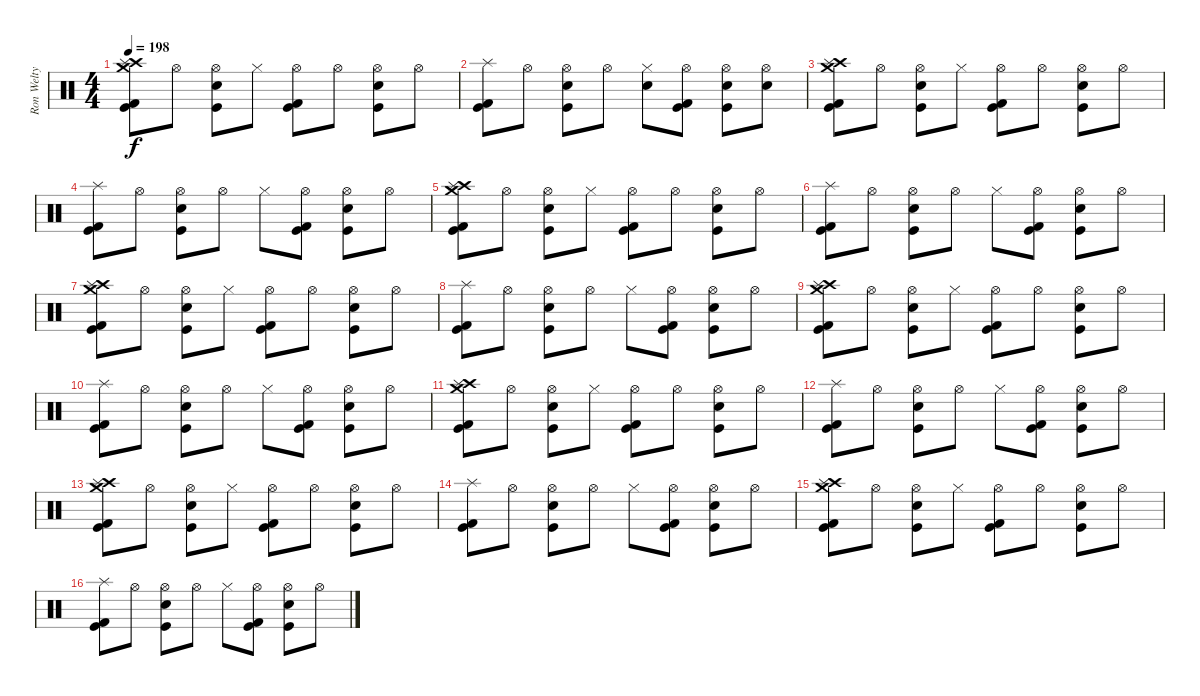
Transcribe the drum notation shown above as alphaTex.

\track ("Ron Welty" "Ron Welty") {instrument percussion}
\staff {score}
\articulation defaults
\ts (4 4)
\tempo 198
\clef neutral
\ks c
("Crash medium (hit)" "Crash high (hit)" "Splash (hit)" "Kick (hit) 2" "Kick (hit)").8{dy f} "Hi-Hat (open)".8 ("Hi-Hat (open)" "Electric Snare (hit)" "Kick (hit)").8 "Hi-Hat (closed)".8 ("Hi-Hat (open)" "Kick (hit) 2" "Kick (hit)").8 "Hi-Hat (open)".8 ("Hi-Hat (open)" "Electric Snare (hit)" "Kick (hit)").8 "Hi-Hat (open)".8 |
("Splash (hit)" "Kick (hit) 2" "Kick (hit)").8 "Hi-Hat (open)".8 ("Hi-Hat (open)" "Electric Snare (hit)" "Kick (hit)").8 "Hi-Hat (open)".8 ("Hi-Hat (closed)" "Electric Snare (hit)").8 ("Hi-Hat (open)" "Kick (hit) 2" "Kick (hit)").8 ("Hi-Hat (open)" "Electric Snare (hit)" "Kick (hit)").8 ("Hi-Hat (open)" "Electric Snare (hit)").8 |
("Crash medium (hit)" "Crash high (hit)" "Splash (hit)" "Kick (hit) 2" "Kick (hit)").8 "Hi-Hat (open)".8 ("Hi-Hat (open)" "Electric Snare (hit)" "Kick (hit)").8 "Hi-Hat (closed)".8 ("Hi-Hat (open)" "Kick (hit) 2" "Kick (hit)").8 "Hi-Hat (open)".8 ("Hi-Hat (open)" "Electric Snare (hit)" "Kick (hit)").8 "Hi-Hat (open)".8 |
("Splash (hit)" "Kick (hit) 2" "Kick (hit)").8 "Hi-Hat (open)".8 ("Hi-Hat (open)" "Electric Snare (hit)" "Kick (hit)").8 "Hi-Hat (open)".8 "Hi-Hat (closed)".8 ("Hi-Hat (open)" "Kick (hit) 2" "Kick (hit)").8 ("Hi-Hat (open)" "Electric Snare (hit)" "Kick (hit)").8 "Hi-Hat (open)".8 |
("Crash medium (hit)" "Crash high (hit)" "Splash (hit)" "Kick (hit) 2" "Kick (hit)").8 "Hi-Hat (open)".8 ("Hi-Hat (open)" "Electric Snare (hit)" "Kick (hit)").8 "Hi-Hat (closed)".8 ("Hi-Hat (open)" "Kick (hit) 2" "Kick (hit)").8 "Hi-Hat (open)".8 ("Hi-Hat (open)" "Electric Snare (hit)" "Kick (hit)").8 "Hi-Hat (open)".8 |
("Splash (hit)" "Kick (hit) 2" "Kick (hit)").8 "Hi-Hat (open)".8 ("Hi-Hat (open)" "Electric Snare (hit)" "Kick (hit)").8 "Hi-Hat (open)".8 "Hi-Hat (closed)".8 ("Hi-Hat (open)" "Kick (hit) 2" "Kick (hit)").8 ("Hi-Hat (open)" "Electric Snare (hit)" "Kick (hit)").8 "Hi-Hat (open)".8 |
("Crash medium (hit)" "Crash high (hit)" "Splash (hit)" "Kick (hit) 2" "Kick (hit)").8 "Hi-Hat (open)".8 ("Hi-Hat (open)" "Electric Snare (hit)" "Kick (hit)").8 "Hi-Hat (closed)".8 ("Hi-Hat (open)" "Kick (hit) 2" "Kick (hit)").8 "Hi-Hat (open)".8 ("Hi-Hat (open)" "Electric Snare (hit)" "Kick (hit)").8 "Hi-Hat (open)".8 |
("Splash (hit)" "Kick (hit) 2" "Kick (hit)").8 "Hi-Hat (open)".8 ("Hi-Hat (open)" "Electric Snare (hit)" "Kick (hit)").8 "Hi-Hat (open)".8 "Hi-Hat (closed)".8 ("Hi-Hat (open)" "Kick (hit) 2" "Kick (hit)").8 ("Hi-Hat (open)" "Electric Snare (hit)" "Kick (hit)").8 "Hi-Hat (open)".8 |
("Crash medium (hit)" "Crash high (hit)" "Splash (hit)" "Kick (hit) 2" "Kick (hit)").8 "Hi-Hat (open)".8 ("Hi-Hat (open)" "Electric Snare (hit)" "Kick (hit)").8 "Hi-Hat (closed)".8 ("Hi-Hat (open)" "Kick (hit) 2" "Kick (hit)").8 "Hi-Hat (open)".8 ("Hi-Hat (open)" "Electric Snare (hit)" "Kick (hit)").8 "Hi-Hat (open)".8 |
("Splash (hit)" "Kick (hit) 2" "Kick (hit)").8 "Hi-Hat (open)".8 ("Hi-Hat (open)" "Electric Snare (hit)" "Kick (hit)").8 "Hi-Hat (open)".8 "Hi-Hat (closed)".8 ("Hi-Hat (open)" "Kick (hit) 2" "Kick (hit)").8 ("Hi-Hat (open)" "Electric Snare (hit)" "Kick (hit)").8 "Hi-Hat (open)".8 |
("Crash medium (hit)" "Crash high (hit)" "Splash (hit)" "Kick (hit) 2" "Kick (hit)").8 "Hi-Hat (open)".8 ("Hi-Hat (open)" "Electric Snare (hit)" "Kick (hit)").8 "Hi-Hat (closed)".8 ("Hi-Hat (open)" "Kick (hit) 2" "Kick (hit)").8 "Hi-Hat (open)".8 ("Hi-Hat (open)" "Electric Snare (hit)" "Kick (hit)").8 "Hi-Hat (open)".8 |
("Splash (hit)" "Kick (hit) 2" "Kick (hit)").8 "Hi-Hat (open)".8 ("Hi-Hat (open)" "Electric Snare (hit)" "Kick (hit)").8 "Hi-Hat (open)".8 "Hi-Hat (closed)".8 ("Hi-Hat (open)" "Kick (hit) 2" "Kick (hit)").8 ("Hi-Hat (open)" "Electric Snare (hit)" "Kick (hit)").8 "Hi-Hat (open)".8 |
("Crash medium (hit)" "Crash high (hit)" "Splash (hit)" "Kick (hit) 2" "Kick (hit)").8 "Hi-Hat (open)".8 ("Hi-Hat (open)" "Electric Snare (hit)" "Kick (hit)").8 "Hi-Hat (closed)".8 ("Hi-Hat (open)" "Kick (hit) 2" "Kick (hit)").8 "Hi-Hat (open)".8 ("Hi-Hat (open)" "Electric Snare (hit)" "Kick (hit)").8 "Hi-Hat (open)".8 |
("Splash (hit)" "Kick (hit) 2" "Kick (hit)").8 "Hi-Hat (open)".8 ("Hi-Hat (open)" "Electric Snare (hit)" "Kick (hit)").8 "Hi-Hat (open)".8 "Hi-Hat (closed)".8 ("Hi-Hat (open)" "Kick (hit) 2" "Kick (hit)").8 ("Hi-Hat (open)" "Electric Snare (hit)" "Kick (hit)").8 "Hi-Hat (open)".8 |
("Crash medium (hit)" "Crash high (hit)" "Splash (hit)" "Kick (hit) 2" "Kick (hit)").8 "Hi-Hat (open)".8 ("Hi-Hat (open)" "Electric Snare (hit)" "Kick (hit)").8 "Hi-Hat (closed)".8 ("Hi-Hat (open)" "Kick (hit) 2" "Kick (hit)").8 "Hi-Hat (open)".8 ("Hi-Hat (open)" "Electric Snare (hit)" "Kick (hit)").8 "Hi-Hat (open)".8 |
("Splash (hit)" "Kick (hit) 2" "Kick (hit)").8 "Hi-Hat (open)".8 ("Hi-Hat (open)" "Electric Snare (hit)" "Kick (hit)").8 "Hi-Hat (open)".8 "Hi-Hat (closed)".8 ("Hi-Hat (open)" "Kick (hit) 2" "Kick (hit)").8 ("Hi-Hat (open)" "Electric Snare (hit)" "Kick (hit)").8 "Hi-Hat (open)".8
